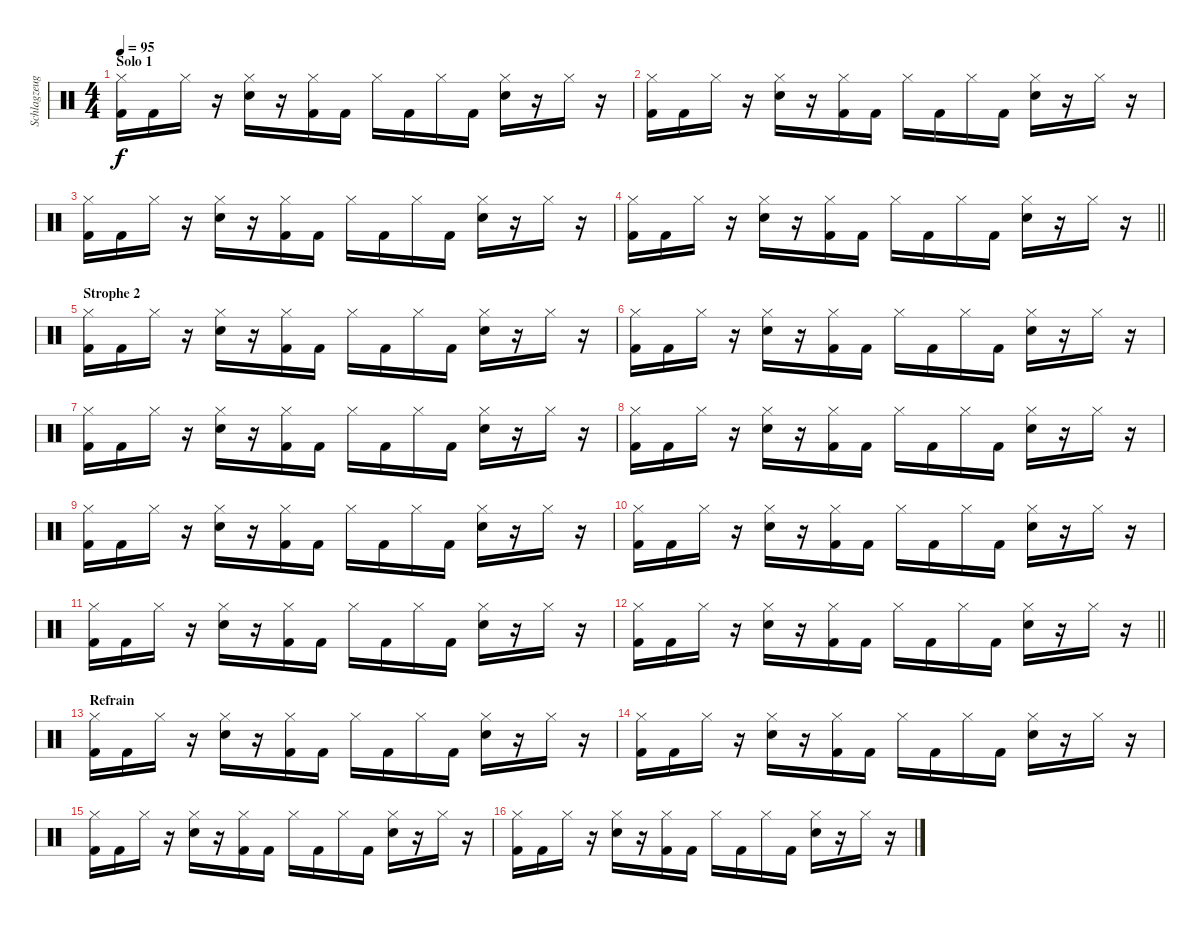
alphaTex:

\track ("Schlagzeug" "Schlagzeug") {instrument percussion}
\staff {score}
\articulation defaults
\ts (4 4)
\section ("" "Solo 1")
\tempo 95
\clef neutral
\ks c
("Hi-Hat (closed)" "Kick (hit) 2").16{dy f} "Kick (hit) 2".16 "Hi-Hat (closed)".16 r.16 ("Hi-Hat (closed)" "Snare (hit) 2").16 r.16 ("Hi-Hat (closed)" "Kick (hit) 2").16 "Kick (hit) 2".16 "Hi-Hat (closed)".16 "Kick (hit) 2".16 "Hi-Hat (closed)".16 "Kick (hit) 2".16 ("Hi-Hat (closed)" "Snare (hit) 2").16 r.16 "Hi-Hat (closed)".16 r.16 |
("Hi-Hat (closed)" "Kick (hit) 2").16 "Kick (hit) 2".16 "Hi-Hat (closed)".16 r.16 ("Hi-Hat (closed)" "Snare (hit) 2").16 r.16 ("Hi-Hat (closed)" "Kick (hit) 2").16 "Kick (hit) 2".16 "Hi-Hat (closed)".16 "Kick (hit) 2".16 "Hi-Hat (closed)".16 "Kick (hit) 2".16 ("Hi-Hat (closed)" "Snare (hit) 2").16 r.16 "Hi-Hat (closed)".16 r.16 |
("Hi-Hat (closed)" "Kick (hit) 2").16 "Kick (hit) 2".16 "Hi-Hat (closed)".16 r.16 ("Hi-Hat (closed)" "Snare (hit) 2").16 r.16 ("Hi-Hat (closed)" "Kick (hit) 2").16 "Kick (hit) 2".16 "Hi-Hat (closed)".16 "Kick (hit) 2".16 "Hi-Hat (closed)".16 "Kick (hit) 2".16 ("Hi-Hat (closed)" "Snare (hit) 2").16 r.16 "Hi-Hat (closed)".16 r.16 |
\barLineRight lightlight
("Hi-Hat (closed)" "Kick (hit) 2").16 "Kick (hit) 2".16 "Hi-Hat (closed)".16 r.16 ("Hi-Hat (closed)" "Snare (hit) 2").16 r.16 ("Hi-Hat (closed)" "Kick (hit) 2").16 "Kick (hit) 2".16 "Hi-Hat (closed)".16 "Kick (hit) 2".16 "Hi-Hat (closed)".16 "Kick (hit) 2".16 ("Hi-Hat (closed)" "Snare (hit) 2").16 r.16 "Hi-Hat (closed)".16 r.16 |
\section ("" "Strophe 2")
("Hi-Hat (closed)" "Kick (hit) 2").16 "Kick (hit) 2".16 "Hi-Hat (closed)".16 r.16 ("Hi-Hat (closed)" "Snare (hit) 2").16 r.16 ("Hi-Hat (closed)" "Kick (hit) 2").16 "Kick (hit) 2".16 "Hi-Hat (closed)".16 "Kick (hit) 2".16 "Hi-Hat (closed)".16 "Kick (hit) 2".16 ("Hi-Hat (closed)" "Snare (hit) 2").16 r.16 "Hi-Hat (closed)".16 r.16 |
("Hi-Hat (closed)" "Kick (hit) 2").16 "Kick (hit) 2".16 "Hi-Hat (closed)".16 r.16 ("Hi-Hat (closed)" "Snare (hit) 2").16 r.16 ("Hi-Hat (closed)" "Kick (hit) 2").16 "Kick (hit) 2".16 "Hi-Hat (closed)".16 "Kick (hit) 2".16 "Hi-Hat (closed)".16 "Kick (hit) 2".16 ("Hi-Hat (closed)" "Snare (hit) 2").16 r.16 "Hi-Hat (closed)".16 r.16 |
("Hi-Hat (closed)" "Kick (hit) 2").16 "Kick (hit) 2".16 "Hi-Hat (closed)".16 r.16 ("Hi-Hat (closed)" "Snare (hit) 2").16 r.16 ("Hi-Hat (closed)" "Kick (hit) 2").16 "Kick (hit) 2".16 "Hi-Hat (closed)".16 "Kick (hit) 2".16 "Hi-Hat (closed)".16 "Kick (hit) 2".16 ("Hi-Hat (closed)" "Snare (hit) 2").16 r.16 "Hi-Hat (closed)".16 r.16 |
("Hi-Hat (closed)" "Kick (hit) 2").16 "Kick (hit) 2".16 "Hi-Hat (closed)".16 r.16 ("Hi-Hat (closed)" "Snare (hit) 2").16 r.16 ("Hi-Hat (closed)" "Kick (hit) 2").16 "Kick (hit) 2".16 "Hi-Hat (closed)".16 "Kick (hit) 2".16 "Hi-Hat (closed)".16 "Kick (hit) 2".16 ("Hi-Hat (closed)" "Snare (hit) 2").16 r.16 "Hi-Hat (closed)".16 r.16 |
("Hi-Hat (closed)" "Kick (hit) 2").16 "Kick (hit) 2".16 "Hi-Hat (closed)".16 r.16 ("Hi-Hat (closed)" "Snare (hit) 2").16 r.16 ("Hi-Hat (closed)" "Kick (hit) 2").16 "Kick (hit) 2".16 "Hi-Hat (closed)".16 "Kick (hit) 2".16 "Hi-Hat (closed)".16 "Kick (hit) 2".16 ("Hi-Hat (closed)" "Snare (hit) 2").16 r.16 "Hi-Hat (closed)".16 r.16 |
("Hi-Hat (closed)" "Kick (hit) 2").16 "Kick (hit) 2".16 "Hi-Hat (closed)".16 r.16 ("Hi-Hat (closed)" "Snare (hit) 2").16 r.16 ("Hi-Hat (closed)" "Kick (hit) 2").16 "Kick (hit) 2".16 "Hi-Hat (closed)".16 "Kick (hit) 2".16 "Hi-Hat (closed)".16 "Kick (hit) 2".16 ("Hi-Hat (closed)" "Snare (hit) 2").16 r.16 "Hi-Hat (closed)".16 r.16 |
("Hi-Hat (closed)" "Kick (hit) 2").16 "Kick (hit) 2".16 "Hi-Hat (closed)".16 r.16 ("Hi-Hat (closed)" "Snare (hit) 2").16 r.16 ("Hi-Hat (closed)" "Kick (hit) 2").16 "Kick (hit) 2".16 "Hi-Hat (closed)".16 "Kick (hit) 2".16 "Hi-Hat (closed)".16 "Kick (hit) 2".16 ("Hi-Hat (closed)" "Snare (hit) 2").16 r.16 "Hi-Hat (closed)".16 r.16 |
\barLineRight lightlight
("Hi-Hat (closed)" "Kick (hit) 2").16 "Kick (hit) 2".16 "Hi-Hat (closed)".16 r.16 ("Hi-Hat (closed)" "Snare (hit) 2").16 r.16 ("Hi-Hat (closed)" "Kick (hit) 2").16 "Kick (hit) 2".16 "Hi-Hat (closed)".16 "Kick (hit) 2".16 "Hi-Hat (closed)".16 "Kick (hit) 2".16 ("Hi-Hat (closed)" "Snare (hit) 2").16 r.16 "Hi-Hat (closed)".16 r.16 |
\section ("" "Refrain")
("Hi-Hat (closed)" "Kick (hit) 2").16 "Kick (hit) 2".16 "Hi-Hat (closed)".16 r.16 ("Hi-Hat (closed)" "Snare (hit) 2").16 r.16 ("Hi-Hat (closed)" "Kick (hit) 2").16 "Kick (hit) 2".16 "Hi-Hat (closed)".16 "Kick (hit) 2".16 "Hi-Hat (closed)".16 "Kick (hit) 2".16 ("Hi-Hat (closed)" "Snare (hit) 2").16 r.16 "Hi-Hat (closed)".16 r.16 |
("Hi-Hat (closed)" "Kick (hit) 2").16 "Kick (hit) 2".16 "Hi-Hat (closed)".16 r.16 ("Hi-Hat (closed)" "Snare (hit) 2").16 r.16 ("Hi-Hat (closed)" "Kick (hit) 2").16 "Kick (hit) 2".16 "Hi-Hat (closed)".16 "Kick (hit) 2".16 "Hi-Hat (closed)".16 "Kick (hit) 2".16 ("Hi-Hat (closed)" "Snare (hit) 2").16 r.16 "Hi-Hat (closed)".16 r.16 |
("Hi-Hat (closed)" "Kick (hit) 2").16 "Kick (hit) 2".16 "Hi-Hat (closed)".16 r.16 ("Hi-Hat (closed)" "Snare (hit) 2").16 r.16 ("Hi-Hat (closed)" "Kick (hit) 2").16 "Kick (hit) 2".16 "Hi-Hat (closed)".16 "Kick (hit) 2".16 "Hi-Hat (closed)".16 "Kick (hit) 2".16 ("Hi-Hat (closed)" "Snare (hit) 2").16 r.16 "Hi-Hat (closed)".16 r.16 |
("Hi-Hat (closed)" "Kick (hit) 2").16 "Kick (hit) 2".16 "Hi-Hat (closed)".16 r.16 ("Hi-Hat (closed)" "Snare (hit) 2").16 r.16 ("Hi-Hat (closed)" "Kick (hit) 2").16 "Kick (hit) 2".16 "Hi-Hat (closed)".16 "Kick (hit) 2".16 "Hi-Hat (closed)".16 "Kick (hit) 2".16 ("Hi-Hat (closed)" "Snare (hit) 2").16 r.16 "Hi-Hat (closed)".16 r.16
